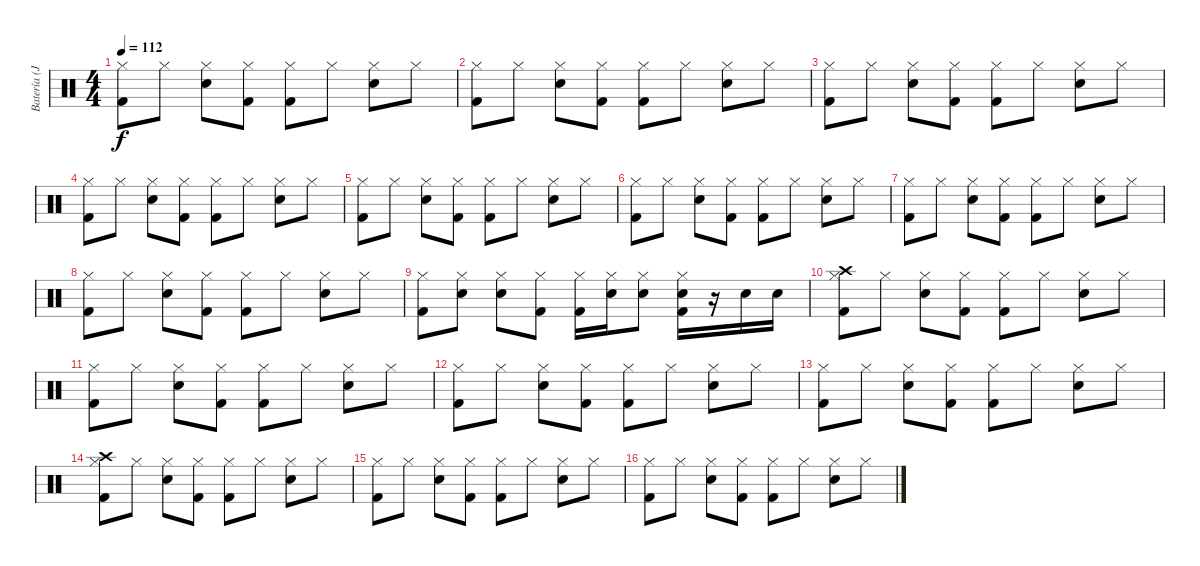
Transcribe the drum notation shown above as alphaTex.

\track ("Batería (Javi Molina)" "Batería (J") {instrument percussion}
\staff {score}
\articulation defaults
\ts (4 4)
\tempo 112
\clef neutral
\ks c
("Hi-Hat (closed)" "Kick (hit) 2").8{dy f} "Hi-Hat (closed)".8 ("Hi-Hat (closed)" "Electric Snare (hit)").8 ("Hi-Hat (closed)" "Kick (hit) 2").8 ("Hi-Hat (closed)" "Kick (hit) 2").8 "Hi-Hat (closed)".8 ("Hi-Hat (closed)" "Electric Snare (hit)").8 "Hi-Hat (closed)".8 |
("Hi-Hat (closed)" "Kick (hit) 2").8 "Hi-Hat (closed)".8 ("Hi-Hat (closed)" "Electric Snare (hit)").8 ("Hi-Hat (closed)" "Kick (hit) 2").8 ("Hi-Hat (closed)" "Kick (hit) 2").8 "Hi-Hat (closed)".8 ("Hi-Hat (closed)" "Electric Snare (hit)").8 "Hi-Hat (closed)".8 |
("Hi-Hat (closed)" "Kick (hit) 2").8 "Hi-Hat (closed)".8 ("Hi-Hat (closed)" "Electric Snare (hit)").8 ("Hi-Hat (closed)" "Kick (hit) 2").8 ("Hi-Hat (closed)" "Kick (hit) 2").8 "Hi-Hat (closed)".8 ("Hi-Hat (closed)" "Electric Snare (hit)").8 "Hi-Hat (closed)".8 |
("Hi-Hat (closed)" "Kick (hit) 2").8 "Hi-Hat (closed)".8 ("Hi-Hat (closed)" "Electric Snare (hit)").8 ("Hi-Hat (closed)" "Kick (hit) 2").8 ("Hi-Hat (closed)" "Kick (hit) 2").8 "Hi-Hat (closed)".8 ("Hi-Hat (closed)" "Electric Snare (hit)").8 "Hi-Hat (closed)".8 |
("Hi-Hat (closed)" "Kick (hit) 2").8 "Hi-Hat (closed)".8 ("Hi-Hat (closed)" "Electric Snare (hit)").8 ("Hi-Hat (closed)" "Kick (hit) 2").8 ("Hi-Hat (closed)" "Kick (hit) 2").8 "Hi-Hat (closed)".8 ("Hi-Hat (closed)" "Electric Snare (hit)").8 "Hi-Hat (closed)".8 |
("Hi-Hat (closed)" "Kick (hit) 2").8 "Hi-Hat (closed)".8 ("Hi-Hat (closed)" "Electric Snare (hit)").8 ("Hi-Hat (closed)" "Kick (hit) 2").8 ("Hi-Hat (closed)" "Kick (hit) 2").8 "Hi-Hat (closed)".8 ("Hi-Hat (closed)" "Electric Snare (hit)").8 "Hi-Hat (closed)".8 |
("Hi-Hat (closed)" "Kick (hit) 2").8 "Hi-Hat (closed)".8 ("Hi-Hat (closed)" "Electric Snare (hit)").8 ("Hi-Hat (closed)" "Kick (hit) 2").8 ("Hi-Hat (closed)" "Kick (hit) 2").8 "Hi-Hat (closed)".8 ("Hi-Hat (closed)" "Electric Snare (hit)").8 "Hi-Hat (closed)".8 |
("Hi-Hat (closed)" "Kick (hit) 2").8 "Hi-Hat (closed)".8 ("Hi-Hat (closed)" "Electric Snare (hit)").8 ("Hi-Hat (closed)" "Kick (hit) 2").8 ("Hi-Hat (closed)" "Kick (hit) 2").8 "Hi-Hat (closed)".8 ("Hi-Hat (closed)" "Electric Snare (hit)").8 "Hi-Hat (closed)".8 |
("Hi-Hat (closed)" "Kick (hit) 2").8 ("Hi-Hat (closed)" "Electric Snare (hit)").8 ("Hi-Hat (closed)" "Electric Snare (hit)").8 ("Hi-Hat (closed)" "Kick (hit) 2").8 ("Hi-Hat (closed)" "Kick (hit) 2").16 ("Hi-Hat (closed)" "Electric Snare (hit)").16 ("Hi-Hat (closed)" "Electric Snare (hit)").8 ("Hi-Hat (closed)" "Kick (hit) 2" "Electric Snare (hit)").16 r.16 "Electric Snare (hit)".16 "Electric Snare (hit)".16 |
("Hi-Hat (closed)" "Kick (hit) 2" "Crash high (hit)").8 "Hi-Hat (closed)".8 ("Hi-Hat (closed)" "Electric Snare (hit)").8 ("Hi-Hat (closed)" "Kick (hit) 2").8 ("Hi-Hat (closed)" "Kick (hit) 2").8 "Hi-Hat (closed)".8 ("Hi-Hat (closed)" "Electric Snare (hit)").8 "Hi-Hat (closed)".8 |
("Hi-Hat (closed)" "Kick (hit) 2").8 "Hi-Hat (closed)".8 ("Hi-Hat (closed)" "Electric Snare (hit)").8 ("Hi-Hat (closed)" "Kick (hit) 2").8 ("Hi-Hat (closed)" "Kick (hit) 2").8 "Hi-Hat (closed)".8 ("Hi-Hat (closed)" "Electric Snare (hit)").8 "Hi-Hat (closed)".8 |
("Hi-Hat (closed)" "Kick (hit) 2").8 "Hi-Hat (closed)".8 ("Hi-Hat (closed)" "Electric Snare (hit)").8 ("Hi-Hat (closed)" "Kick (hit) 2").8 ("Hi-Hat (closed)" "Kick (hit) 2").8 "Hi-Hat (closed)".8 ("Hi-Hat (closed)" "Electric Snare (hit)").8 "Hi-Hat (closed)".8 |
("Hi-Hat (closed)" "Kick (hit) 2").8 "Hi-Hat (closed)".8 ("Hi-Hat (closed)" "Electric Snare (hit)").8 ("Hi-Hat (closed)" "Kick (hit) 2").8 ("Hi-Hat (closed)" "Kick (hit) 2").8 "Hi-Hat (closed)".8 ("Hi-Hat (closed)" "Electric Snare (hit)").8 "Hi-Hat (closed)".8 |
("Hi-Hat (closed)" "Kick (hit) 2" "Crash high (hit)").8 "Hi-Hat (closed)".8 ("Hi-Hat (closed)" "Electric Snare (hit)").8 ("Hi-Hat (closed)" "Kick (hit) 2").8 ("Hi-Hat (closed)" "Kick (hit) 2").8 "Hi-Hat (closed)".8 ("Hi-Hat (closed)" "Electric Snare (hit)").8 "Hi-Hat (closed)".8 |
("Hi-Hat (closed)" "Kick (hit) 2").8 "Hi-Hat (closed)".8 ("Hi-Hat (closed)" "Electric Snare (hit)").8 ("Hi-Hat (closed)" "Kick (hit) 2").8 ("Hi-Hat (closed)" "Kick (hit) 2").8 "Hi-Hat (closed)".8 ("Hi-Hat (closed)" "Electric Snare (hit)").8 "Hi-Hat (closed)".8 |
("Hi-Hat (closed)" "Kick (hit) 2").8 "Hi-Hat (closed)".8 ("Hi-Hat (closed)" "Electric Snare (hit)").8 ("Hi-Hat (closed)" "Kick (hit) 2").8 ("Hi-Hat (closed)" "Kick (hit) 2").8 "Hi-Hat (closed)".8 ("Hi-Hat (closed)" "Electric Snare (hit)").8 "Hi-Hat (closed)".8
